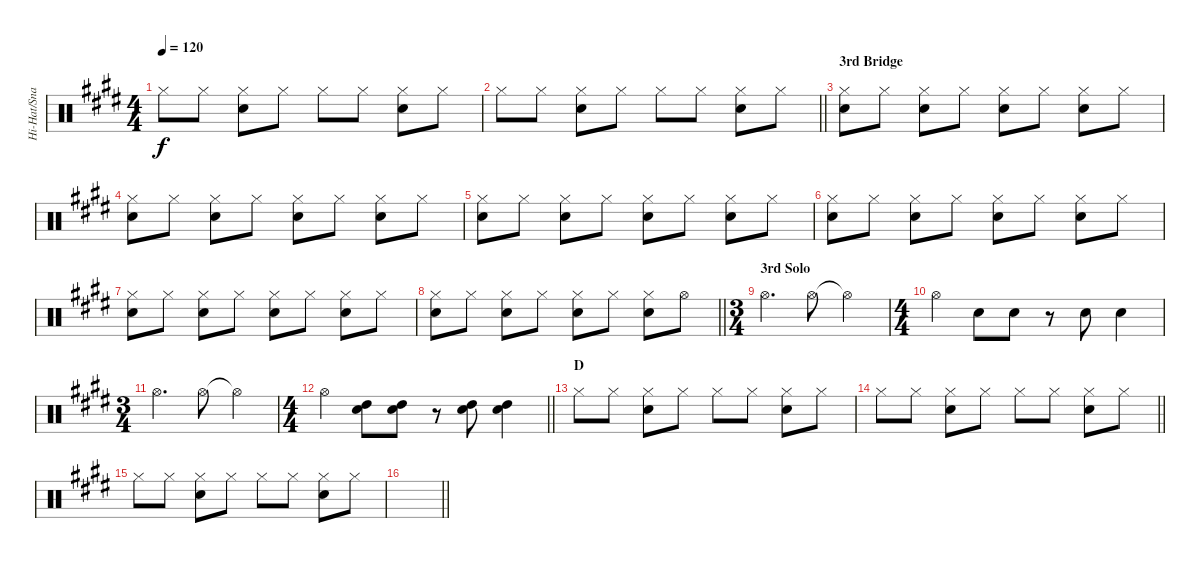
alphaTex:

\track ("Hi-Hat/Snare" "Hi-Hat/Sna") {instrument percussion}
\staff {score}
\articulation defaults
\ts (4 4)
\tempo 120
\clef neutral
\ks e "Hi-Hat (closed)".8{dy f} "Hi-Hat (closed)".8
("Hi-Hat (closed)" "Snare (hit) 2").8 "Hi-Hat (closed)".8 "Hi-Hat (closed)".8 "Hi-Hat (closed)".8 ("Hi-Hat (closed)" "Snare (hit) 2").8 "Hi-Hat (closed)".8 |
\barLineRight lightlight "Hi-Hat (closed)".8 "Hi-Hat (closed)".8
("Hi-Hat (closed)" "Snare (hit) 2").8 "Hi-Hat (closed)".8 "Hi-Hat (closed)".8 "Hi-Hat (closed)".8 ("Hi-Hat (closed)" "Snare (hit) 2").8 "Hi-Hat (closed)".8 |
\section ("" "3rd Bridge")
("Hi-Hat (closed)" "Snare (hit) 2").8 "Hi-Hat (closed)".8 ("Hi-Hat (closed)" "Snare (hit) 2").8 "Hi-Hat (closed)".8 ("Hi-Hat (closed)" "Snare (hit) 2").8 "Hi-Hat (closed)".8 ("Hi-Hat (closed)" "Snare (hit) 2").8 "Hi-Hat (closed)".8 |
("Hi-Hat (closed)" "Snare (hit) 2").8 "Hi-Hat (closed)".8 ("Hi-Hat (closed)" "Snare (hit) 2").8 "Hi-Hat (closed)".8 ("Hi-Hat (closed)" "Snare (hit) 2").8 "Hi-Hat (closed)".8 ("Hi-Hat (closed)" "Snare (hit) 2").8 "Hi-Hat (closed)".8 |
("Hi-Hat (closed)" "Snare (hit) 2").8 "Hi-Hat (closed)".8 ("Hi-Hat (closed)" "Snare (hit) 2").8 "Hi-Hat (closed)".8 ("Hi-Hat (closed)" "Snare (hit) 2").8 "Hi-Hat (closed)".8 ("Hi-Hat (closed)" "Snare (hit) 2").8 "Hi-Hat (closed)".8 |
("Hi-Hat (closed)" "Snare (hit) 2").8 "Hi-Hat (closed)".8 ("Hi-Hat (closed)" "Snare (hit) 2").8 "Hi-Hat (closed)".8 ("Hi-Hat (closed)" "Snare (hit) 2").8 "Hi-Hat (closed)".8 ("Hi-Hat (closed)" "Snare (hit) 2").8 "Hi-Hat (closed)".8 |
("Hi-Hat (closed)" "Snare (hit) 2").8 "Hi-Hat (closed)".8 ("Hi-Hat (closed)" "Snare (hit) 2").8 "Hi-Hat (closed)".8 ("Hi-Hat (closed)" "Snare (hit) 2").8 "Hi-Hat (closed)".8 ("Hi-Hat (closed)" "Snare (hit) 2").8 "Hi-Hat (closed)".8 |
\barLineRight lightlight
("Hi-Hat (closed)" "Snare (hit) 2").8 "Hi-Hat (closed)".8 ("Hi-Hat (closed)" "Snare (hit) 2").8 "Hi-Hat (closed)".8 ("Hi-Hat (closed)" "Snare (hit) 2").8 "Hi-Hat (closed)".8 ("Hi-Hat (closed)" "Snare (hit) 2").8 "Hi-Hat (open)".8 |
\ts (3 4)
\section ("" "3rd Solo")
"Hi-Hat (open)".4{d} "Hi-Hat (open)".8 "Hi-Hat (open)"{t}.4 |
\ts (4 4)
"Hi-Hat (open)".4 "Snare (hit) 2".8 "Snare (hit) 2".8 r.8 "Snare (hit) 2".8 "Snare (hit) 2".4 |
\ts (3 4)
"Hi-Hat (open)".4{d} "Hi-Hat (open)".8 "Hi-Hat (open)"{t}.4 |
\ts (4 4)
\barLineRight lightlight "Hi-Hat (open)".4
("Snare (hit) 2" "High Tom (hit)").8 ("Snare (hit) 2" "High Tom (hit)").8 r.8 ("Snare (hit) 2" "High Tom (hit)").8 ("Snare (hit) 2" "High Tom (hit)").4 |
\section ("" "D")
"Hi-Hat (closed)".8 "Hi-Hat (closed)".8 ("Hi-Hat (closed)" "Snare (hit) 2").8 "Hi-Hat (closed)".8 "Hi-Hat (closed)".8 "Hi-Hat (closed)".8 ("Hi-Hat (closed)" "Snare (hit) 2").8 "Hi-Hat (closed)".8 |
\barLineRight lightlight "Hi-Hat (closed)".8 "Hi-Hat (closed)".8
("Hi-Hat (closed)" "Snare (hit) 2").8 "Hi-Hat (closed)".8 "Hi-Hat (closed)".8 "Hi-Hat (closed)".8 ("Hi-Hat (closed)" "Snare (hit) 2").8 "Hi-Hat (closed)".8 |
"Hi-Hat (closed)".8 "Hi-Hat (closed)".8 ("Hi-Hat (closed)" "Snare (hit) 2").8 "Hi-Hat (closed)".8 "Hi-Hat (closed)".8 "Hi-Hat (closed)".8 ("Hi-Hat (closed)" "Snare (hit) 2").8 "Hi-Hat (closed)".8 |
\barLineRight lightlight
